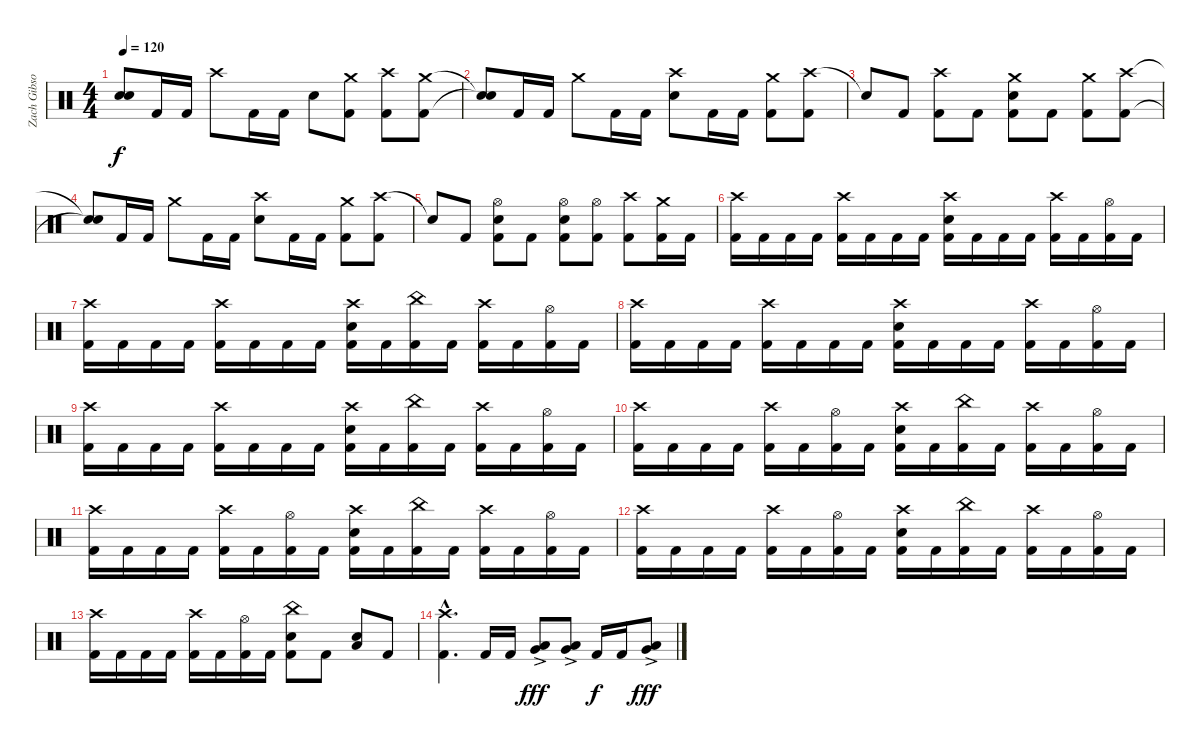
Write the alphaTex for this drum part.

\track ("Zach Gibson (Drums)" "Zach Gibso") {instrument percussion}
\staff {score}
\articulation defaults
\ts (4 4)
\tempo 120
\clef neutral
\ks c
("Snare (hit)"{t} "Snare (hit)"{t}).8{dy f} "Kick (hit) 2".16 "Kick (hit) 2".16 "Crash high (hit)".8 "Kick (hit) 2".16 "Kick (hit) 2".16 "Snare (hit) 2".8 ("Crash medium (hit)" "Kick (hit) 2").8 ("Crash high (hit)" "Kick (hit) 2").8 ("Crash medium (hit)" "Kick (hit) 2").8 |
("Snare (hit)"{t} "Snare (hit)"{t}).8 "Kick (hit) 2".16 "Kick (hit) 2".16 "Crash medium (hit)".8 "Kick (hit) 2".16 "Kick (hit) 2".16 ("Crash high (hit)" "Snare (hit) 2").8 "Kick (hit) 2".16 "Kick (hit) 2".16 ("Crash medium (hit)" "Kick (hit) 2").8 ("Crash high (hit)" "Kick (hit) 2").8 |
"Snare (hit)"{t}.8 "Kick (hit) 2".8 ("Crash high (hit)" "Kick (hit) 2").8 "Kick (hit) 2".8 ("Crash medium (hit)" "Snare (hit) 2" "Kick (hit) 2").8 "Kick (hit) 2".8 ("Crash medium (hit)" "Kick (hit) 2").8 ("Crash high (hit)" "Kick (hit) 2").8 |
("Snare (hit)"{t} "Snare (hit)"{t}).8 "Kick (hit) 2".16 "Kick (hit) 2".16 "Crash medium (hit)".8 "Kick (hit) 2".16 "Kick (hit) 2".16 ("Crash high (hit)" "Snare (hit) 2").8 "Kick (hit) 2".16 "Kick (hit) 2".16 ("Crash medium (hit)" "Kick (hit) 2").8 ("Crash high (hit)" "Kick (hit) 2").8 |
"Snare (hit)"{t}.8 "Kick (hit) 2".8 ("Hi-Hat (open)" "Snare (hit) 2" "Kick (hit) 2").8 "Kick (hit) 2".8 ("Hi-Hat (open)" "Snare (hit) 2" "Kick (hit) 2").8 ("Hi-Hat (open)" "Kick (hit) 2").8 ("Crash high (hit)" "Kick (hit) 2").8 ("Crash medium (hit)" "Kick (hit) 2").16 "Kick (hit) 2".16 |
("Crash high (hit)" "Kick (hit) 2").16 "Kick (hit) 2".16 "Kick (hit) 2".16 "Kick (hit) 2".16 ("Crash high (hit)" "Kick (hit) 2").16 "Kick (hit) 2".16 "Kick (hit) 2".16 "Kick (hit) 2".16 ("Crash high (hit)" "Snare (hit) 2" "Kick (hit) 2").16 "Kick (hit) 2".16 "Kick (hit) 2".16 "Kick (hit) 2".16 ("Crash high (hit)" "Kick (hit) 2").16 "Kick (hit) 2".16 ("Hi-Hat (open)" "Kick (hit) 2").16 "Kick (hit) 2".16 |
("Crash high (hit)" "Kick (hit) 2").16 "Kick (hit) 2".16 "Kick (hit) 2".16 "Kick (hit) 2".16 ("Crash high (hit)" "Kick (hit) 2").16 "Kick (hit) 2".16 "Kick (hit) 2".16 "Kick (hit) 2".16 ("Crash high (hit)" "Snare (hit) 2" "Kick (hit) 2").16 "Kick (hit) 2".16 ("China (hit)" "Kick (hit) 2").16 "Kick (hit) 2".16 ("Crash high (hit)" "Kick (hit) 2").16 "Kick (hit) 2".16 ("Hi-Hat (open)" "Kick (hit) 2").16 "Kick (hit) 2".16 |
("Crash high (hit)" "Kick (hit) 2").16 "Kick (hit) 2".16 "Kick (hit) 2".16 "Kick (hit) 2".16 ("Crash high (hit)" "Kick (hit) 2").16 "Kick (hit) 2".16 "Kick (hit) 2".16 "Kick (hit) 2".16 ("Crash high (hit)" "Snare (hit) 2" "Kick (hit) 2").16 "Kick (hit) 2".16 "Kick (hit) 2".16 "Kick (hit) 2".16 ("Crash high (hit)" "Kick (hit) 2").16 "Kick (hit) 2".16 ("Hi-Hat (open)" "Kick (hit) 2").16 "Kick (hit) 2".16 |
("Crash high (hit)" "Kick (hit) 2").16 "Kick (hit) 2".16 "Kick (hit) 2".16 "Kick (hit) 2".16 ("Crash high (hit)" "Kick (hit) 2").16 "Kick (hit) 2".16 "Kick (hit) 2".16 "Kick (hit) 2".16 ("Crash high (hit)" "Snare (hit) 2" "Kick (hit) 2").16 "Kick (hit) 2".16 ("China (hit)" "Kick (hit) 2").16 "Kick (hit) 2".16 ("Crash high (hit)" "Kick (hit) 2").16 "Kick (hit) 2".16 ("Hi-Hat (open)" "Kick (hit) 2").16 "Kick (hit) 2".16 |
("Crash high (hit)" "Kick (hit) 2").16 "Kick (hit) 2".16 "Kick (hit) 2".16 "Kick (hit) 2".16 ("Crash high (hit)" "Kick (hit) 2").16 "Kick (hit) 2".16 ("Hi-Hat (open)" "Kick (hit) 2").16 "Kick (hit) 2".16 ("Crash high (hit)" "Snare (hit) 2" "Kick (hit) 2").16 "Kick (hit) 2".16 ("China (hit)" "Kick (hit) 2").16 "Kick (hit) 2".16 ("Crash high (hit)" "Kick (hit) 2").16 "Kick (hit) 2".16 ("Hi-Hat (open)" "Kick (hit) 2").16 "Kick (hit) 2".16 |
("Crash high (hit)" "Kick (hit) 2").16 "Kick (hit) 2".16 "Kick (hit) 2".16 "Kick (hit) 2".16 ("Crash high (hit)" "Kick (hit) 2").16 "Kick (hit) 2".16 ("Hi-Hat (open)" "Kick (hit) 2").16 "Kick (hit) 2".16 ("Crash high (hit)" "Snare (hit) 2" "Kick (hit) 2").16 "Kick (hit) 2".16 ("China (hit)" "Kick (hit) 2").16 "Kick (hit) 2".16 ("Crash high (hit)" "Kick (hit) 2").16 "Kick (hit) 2".16 ("Hi-Hat (open)" "Kick (hit) 2").16 "Kick (hit) 2".16 |
("Crash high (hit)" "Kick (hit) 2").16 "Kick (hit) 2".16 "Kick (hit) 2".16 "Kick (hit) 2".16 ("Crash high (hit)" "Kick (hit) 2").16 "Kick (hit) 2".16 ("Hi-Hat (open)" "Kick (hit) 2").16 "Kick (hit) 2".16 ("Crash high (hit)" "Snare (hit) 2" "Kick (hit) 2").16 "Kick (hit) 2".16 ("China (hit)" "Kick (hit) 2").16 "Kick (hit) 2".16 ("Crash high (hit)" "Kick (hit) 2").16 "Kick (hit) 2".16 ("Hi-Hat (open)" "Kick (hit) 2").16 "Kick (hit) 2".16 |
("Crash high (hit)" "Kick (hit) 2").16 "Kick (hit) 2".16 "Kick (hit) 2".16 "Kick (hit) 2".16 ("Crash high (hit)" "Kick (hit) 2").16 "Kick (hit) 2".16 ("Hi-Hat (open)" "Kick (hit) 2").16 "Kick (hit) 2".16 ("China (hit)" "Snare (hit) 2" "Kick (hit) 2").8 "Kick (hit) 2".8 ("Low Floor Tom (hit)" "Snare (hit) 2").8 "Kick (hit) 2".8 |
("Crash high (hit)"{hac} "Kick (hit) 2"{hac}).4{d} "Kick (hit) 2".16 "Kick (hit) 2".16 ("Low Tom (hit)"{ac} "Very Low Tom (hit)"{ac}).8{dy fff} ("Low Tom (hit)"{ac} "Very Low Tom (hit)"{ac}).8 "Kick (hit) 2".16{dy f} "Kick (hit) 2".16 ("Very Low Tom (hit)"{ac} "Low Floor Tom (hit)"{ac}).8{dy fff}
